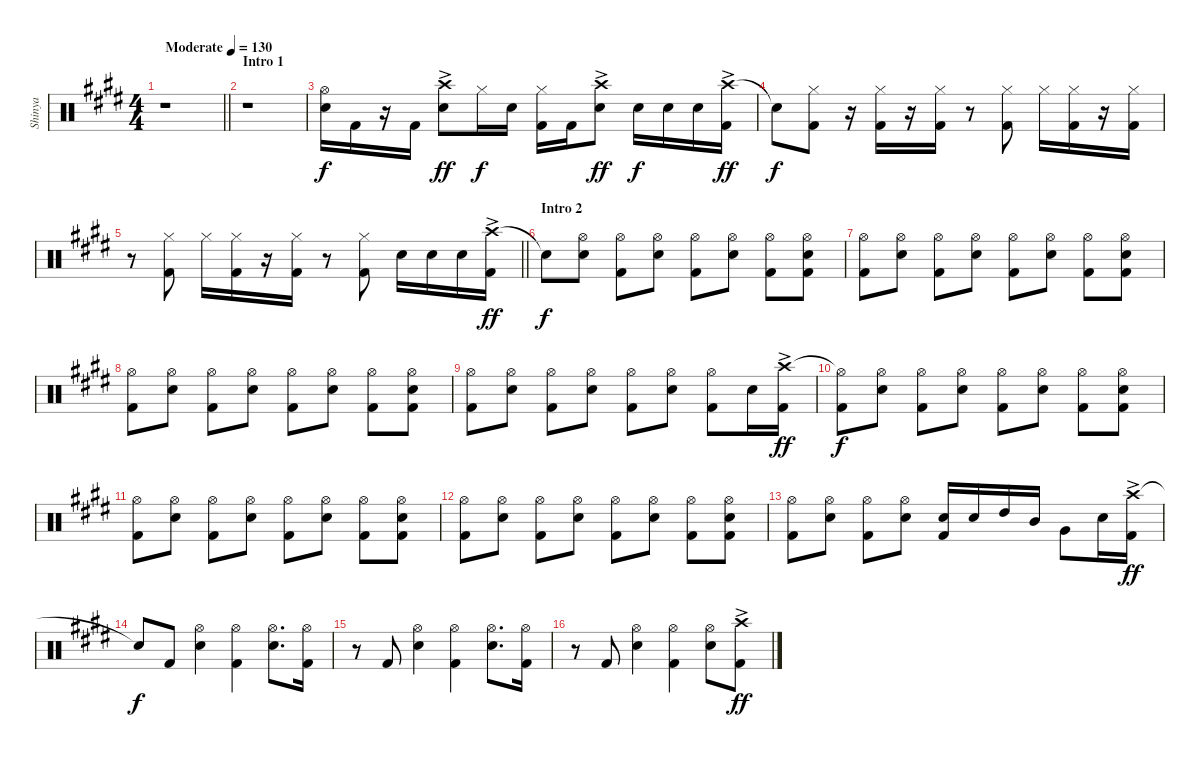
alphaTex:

\track ("Shinya" "Shinya") {instrument percussion}
\staff {score}
\articulation defaults
\ts (4 4)
\tempo (130 "Moderate")
\clef neutral
\barLineRight lightlight
\ks c#minor
r.1{dy f} |
\section ("" "Intro 1")
r.1 |
("Hi-Hat (open)" "Snare (hit) 2").16 "Kick (hit) 2".16 r.16 "Kick (hit) 2".16 ("Crash high (hit)"{ac} "Snare (hit) 2").8{dy ff} "Hi-Hat (closed)".16{dy f} "Snare (hit) 2".16 ("Hi-Hat (closed)" "Kick (hit) 2").16 "Kick (hit) 2".16 ("Crash high (hit)"{ac} "Snare (hit) 2").8{dy ff} "Snare (hit) 2".16{dy f} "Snare (hit) 2".16 "Snare (hit) 2".16 ("Crash high (hit)"{ac} "Kick (hit) 2").16{dy ff} |
"Snare (hit)"{t}.8{dy f} ("Hi-Hat (closed)" "Kick (hit) 2").8 r.16 ("Hi-Hat (closed)" "Kick (hit) 2").16 r.16 ("Hi-Hat (closed)" "Kick (hit) 2").16 r.8 ("Hi-Hat (closed)" "Kick (hit) 2").8 "Hi-Hat (closed)".16 ("Hi-Hat (closed)" "Kick (hit) 2").16 r.16 ("Hi-Hat (closed)" "Kick (hit) 2").16 |
\barLineRight lightlight
r.8 ("Hi-Hat (closed)" "Kick (hit) 2").8 "Hi-Hat (closed)".16 ("Hi-Hat (closed)" "Kick (hit) 2").16 r.16 ("Hi-Hat (closed)" "Kick (hit) 2").16 r.8 ("Hi-Hat (closed)" "Kick (hit) 2").8 "Snare (hit) 2".16 "Snare (hit) 2".16 "Snare (hit) 2".16 ("Crash high (hit)"{ac} "Kick (hit) 2").16{dy ff} |
\section ("" "Intro 2")
"Snare (hit)"{t}.8{dy f} ("Hi-Hat (open)" "Snare (hit) 2").8 ("Hi-Hat (open)" "Kick (hit) 2").8 ("Hi-Hat (open)" "Snare (hit) 2").8 ("Hi-Hat (open)" "Kick (hit) 2").8 ("Hi-Hat (open)" "Snare (hit) 2").8 ("Hi-Hat (open)" "Kick (hit) 2").8 ("Hi-Hat (open)" "Snare (hit) 2" "Kick (hit) 2").8 |
("Hi-Hat (open)" "Kick (hit) 2").8 ("Hi-Hat (open)" "Snare (hit) 2").8 ("Hi-Hat (open)" "Kick (hit) 2").8 ("Hi-Hat (open)" "Snare (hit) 2").8 ("Hi-Hat (open)" "Kick (hit) 2").8 ("Hi-Hat (open)" "Snare (hit) 2").8 ("Hi-Hat (open)" "Kick (hit) 2").8 ("Hi-Hat (open)" "Snare (hit) 2" "Kick (hit) 2").8 |
("Hi-Hat (open)" "Kick (hit) 2").8 ("Hi-Hat (open)" "Snare (hit) 2").8 ("Hi-Hat (open)" "Kick (hit) 2").8 ("Hi-Hat (open)" "Snare (hit) 2").8 ("Hi-Hat (open)" "Kick (hit) 2").8 ("Hi-Hat (open)" "Snare (hit) 2").8 ("Hi-Hat (open)" "Kick (hit) 2").8 ("Hi-Hat (open)" "Snare (hit) 2" "Kick (hit) 2").8 |
("Hi-Hat (open)" "Kick (hit) 2").8 ("Hi-Hat (open)" "Snare (hit) 2").8 ("Hi-Hat (open)" "Kick (hit) 2").8 ("Hi-Hat (open)" "Snare (hit) 2").8 ("Hi-Hat (open)" "Kick (hit) 2").8 ("Hi-Hat (open)" "Snare (hit) 2").8 ("Hi-Hat (open)" "Kick (hit) 2").8 "Snare (hit) 2".16 ("Crash high (hit)"{ac} "Kick (hit) 2").16{dy ff} |
("Hi-Hat (open)"{t} "Kick (hit) 2").8{dy f} ("Hi-Hat (open)" "Snare (hit) 2").8 ("Hi-Hat (open)" "Kick (hit) 2").8 ("Hi-Hat (open)" "Snare (hit) 2").8 ("Hi-Hat (open)" "Kick (hit) 2").8 ("Hi-Hat (open)" "Snare (hit) 2").8 ("Hi-Hat (open)" "Kick (hit) 2").8 ("Hi-Hat (open)" "Snare (hit) 2" "Kick (hit) 2").8 |
("Hi-Hat (open)" "Kick (hit) 2").8 ("Hi-Hat (open)" "Snare (hit) 2").8 ("Hi-Hat (open)" "Kick (hit) 2").8 ("Hi-Hat (open)" "Snare (hit) 2").8 ("Hi-Hat (open)" "Kick (hit) 2").8 ("Hi-Hat (open)" "Snare (hit) 2").8 ("Hi-Hat (open)" "Kick (hit) 2").8 ("Hi-Hat (open)" "Snare (hit) 2" "Kick (hit) 2").8 |
("Hi-Hat (open)" "Kick (hit) 2").8 ("Hi-Hat (open)" "Snare (hit) 2").8 ("Hi-Hat (open)" "Kick (hit) 2").8 ("Hi-Hat (open)" "Snare (hit) 2").8 ("Hi-Hat (open)" "Kick (hit) 2").8 ("Hi-Hat (open)" "Snare (hit) 2").8 ("Hi-Hat (open)" "Kick (hit) 2").8 ("Hi-Hat (open)" "Snare (hit) 2" "Kick (hit) 2").8 |
("Hi-Hat (open)" "Kick (hit) 2").8 ("Hi-Hat (open)" "Snare (hit) 2").8 ("Hi-Hat (open)" "Kick (hit) 2").8 ("Hi-Hat (open)" "Snare (hit) 2").8 ("Snare (hit) 2" "Kick (hit) 2").16 "Snare (hit) 2".16 "High Tom (hit)".16 "Mid Tom (hit)".16 "Very Low Tom (hit)".8 "Snare (hit) 2".16 ("Crash high (hit)"{ac} "Kick (hit) 2").16{dy ff} |
"Snare (hit)"{t}.8{dy f} "Kick (hit) 2".8 ("Hi-Hat (open)" "Snare (hit) 2").4 ("Hi-Hat (open)" "Kick (hit) 2").4 ("Hi-Hat (open)" "Snare (hit) 2").8{d} ("Hi-Hat (open)" "Kick (hit) 2").16 |
r.8 "Kick (hit) 2".8 ("Hi-Hat (open)" "Snare (hit) 2").4 ("Hi-Hat (open)" "Kick (hit) 2").4 ("Hi-Hat (open)" "Snare (hit) 2").8{d} ("Hi-Hat (open)" "Kick (hit) 2").16 |
r.8 "Kick (hit) 2".8 ("Hi-Hat (open)" "Snare (hit) 2").4 ("Hi-Hat (open)" "Kick (hit) 2").4 ("Hi-Hat (open)" "Snare (hit) 2").8 ("Crash high (hit)"{ac} "Kick (hit) 2").8{dy ff}
